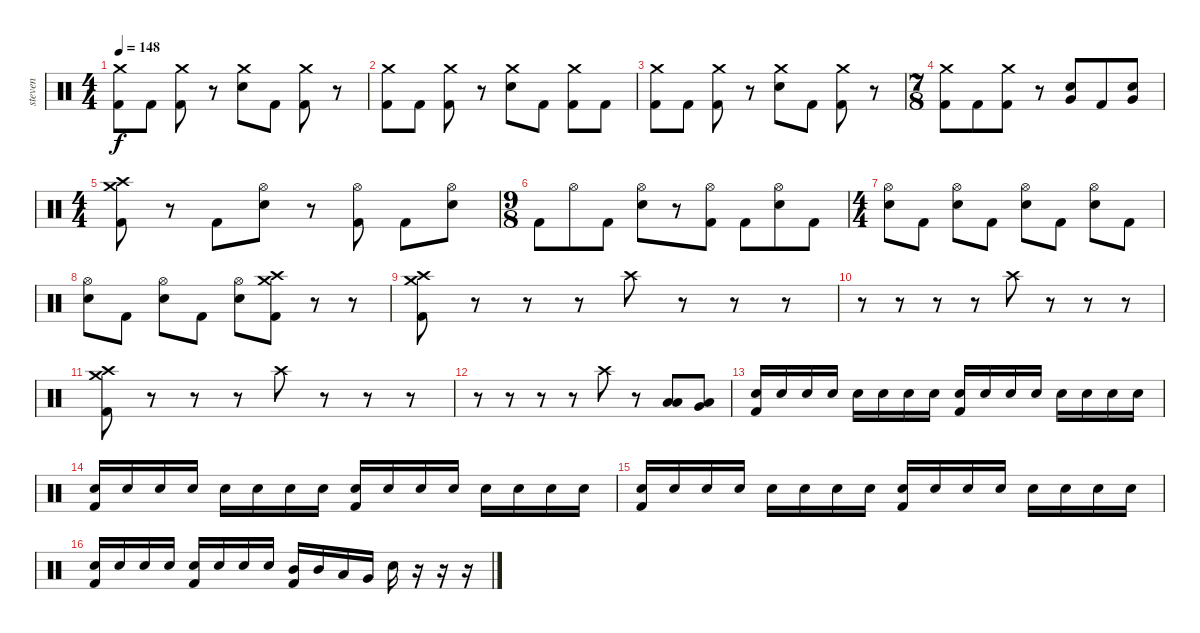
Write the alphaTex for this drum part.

\track ("steven" "steven") {instrument percussion}
\staff {score}
\articulation defaults
\ts (4 4)
\tempo 148
\clef neutral
\ks c
("Crash medium (hit)" "Kick (hit) 2").8{dy f} "Kick (hit) 2".8 ("Crash medium (hit)" "Kick (hit) 2").8 r.8 ("Crash medium (hit)" "Electric Snare (hit)").8 "Kick (hit) 2".8 ("Crash medium (hit)" "Kick (hit) 2").8 r.8 |
("Crash medium (hit)" "Kick (hit) 2").8 "Kick (hit) 2".8 ("Crash medium (hit)" "Kick (hit) 2").8 r.8 ("Crash medium (hit)" "Electric Snare (hit)").8 "Kick (hit) 2".8 ("Crash medium (hit)" "Kick (hit) 2").8 "Kick (hit) 2".8 |
("Crash medium (hit)" "Kick (hit) 2").8 "Kick (hit) 2".8 ("Crash medium (hit)" "Kick (hit) 2").8 r.8 ("Crash medium (hit)" "Electric Snare (hit)").8 "Kick (hit) 2".8 ("Crash medium (hit)" "Kick (hit) 2").8 r.8 |
\ts (7 8)
("Crash medium (hit)" "Kick (hit) 2").8 "Kick (hit) 2".8 ("Crash medium (hit)" "Kick (hit) 2").8 r.8 ("Electric Snare (hit)" "Very Low Tom (hit)").8 "Kick (hit) 2".8 ("Electric Snare (hit)" "Very Low Tom (hit)").8 |
\ts (4 4)
("Crash medium (hit)" "Crash high (hit)" "Kick (hit) 2").8 r.8 "Kick (hit) 2".8 ("Hi-Hat (open)" "Electric Snare (hit)").8 r.8 ("Hi-Hat (open)" "Kick (hit) 2").8 "Kick (hit) 2".8 ("Hi-Hat (open)" "Electric Snare (hit)").8 |
\ts (9 8)
"Kick (hit) 2".8 "Hi-Hat (open)".8 "Kick (hit) 2".8 ("Hi-Hat (open)" "Electric Snare (hit)").8 r.8 ("Hi-Hat (open)" "Kick (hit) 2").8 "Kick (hit) 2".8 ("Hi-Hat (open)" "Electric Snare (hit)").8 "Kick (hit) 2".8 |
\ts (4 4)
("Hi-Hat (open)" "Electric Snare (hit)").8 "Kick (hit) 2".8 ("Hi-Hat (open)" "Electric Snare (hit)").8 "Kick (hit) 2".8 ("Hi-Hat (open)" "Electric Snare (hit)").8 "Kick (hit) 2".8 ("Hi-Hat (open)" "Electric Snare (hit)").8 "Kick (hit) 2".8 |
("Hi-Hat (open)" "Electric Snare (hit)").8 "Kick (hit) 2".8 ("Hi-Hat (open)" "Electric Snare (hit)").8 "Kick (hit) 2".8 ("Hi-Hat (open)" "Electric Snare (hit)").8 ("Crash medium (hit)" "Crash high (hit)" "Kick (hit) 2").8 r.8 r.8 |
("Crash medium (hit)" "Crash high (hit)" "Kick (hit) 2").8 r.8 r.8 r.8 "Crash high (hit)".8 r.8 r.8 r.8 |
r.8 r.8 r.8 r.8 "Crash high (hit)".8 r.8 r.8 r.8 |
("Crash medium (hit)" "Crash high (hit)" "Kick (hit) 2").8 r.8 r.8 r.8 "Crash high (hit)".8 r.8 r.8 r.8 |
r.8 r.8 r.8 r.8 "Crash high (hit)".8 r.8 ("Low Tom (hit)" "Low Tom (hit)").8 ("Low Tom (hit)" "Very Low Tom (hit)").8 |
("Electric Snare (hit)" "Kick (hit) 2").16 "Electric Snare (hit)".16 "Electric Snare (hit)".16 "Electric Snare (hit)".16 "Electric Snare (hit)".16 "Electric Snare (hit)".16 "Electric Snare (hit)".16 "Electric Snare (hit)".16 ("Electric Snare (hit)" "Kick (hit) 2").16 "Electric Snare (hit)".16 "Electric Snare (hit)".16 "Electric Snare (hit)".16 "Electric Snare (hit)".16 "Electric Snare (hit)".16 "Electric Snare (hit)".16 "Electric Snare (hit)".16 |
("Electric Snare (hit)" "Kick (hit) 2").16 "Electric Snare (hit)".16 "Electric Snare (hit)".16 "Electric Snare (hit)".16 "Electric Snare (hit)".16 "Electric Snare (hit)".16 "Electric Snare (hit)".16 "Electric Snare (hit)".16 ("Electric Snare (hit)" "Kick (hit) 2").16 "Electric Snare (hit)".16 "Electric Snare (hit)".16 "Electric Snare (hit)".16 "Electric Snare (hit)".16 "Electric Snare (hit)".16 "Electric Snare (hit)".16 "Electric Snare (hit)".16 |
("Electric Snare (hit)" "Kick (hit) 2").16 "Electric Snare (hit)".16 "Electric Snare (hit)".16 "Electric Snare (hit)".16 "Electric Snare (hit)".16 "Electric Snare (hit)".16 "Electric Snare (hit)".16 "Electric Snare (hit)".16 ("Electric Snare (hit)" "Kick (hit) 2").16 "Electric Snare (hit)".16 "Electric Snare (hit)".16 "Electric Snare (hit)".16 "Electric Snare (hit)".16 "Electric Snare (hit)".16 "Electric Snare (hit)".16 "Electric Snare (hit)".16 |
("Electric Snare (hit)" "Kick (hit) 2").16 "Electric Snare (hit)".16 "Electric Snare (hit)".16 "Electric Snare (hit)".16 ("Electric Snare (hit)" "Kick (hit) 2").16 "Electric Snare (hit)".16 "Electric Snare (hit)".16 "Electric Snare (hit)".16 ("Mid Tom (hit)" "Kick (hit) 2").16 "Mid Tom (hit)".16 "Low Tom (hit)".16 "Very Low Tom (hit)".16 "Electric Snare (hit)".16 r.16 r.16 r.16
